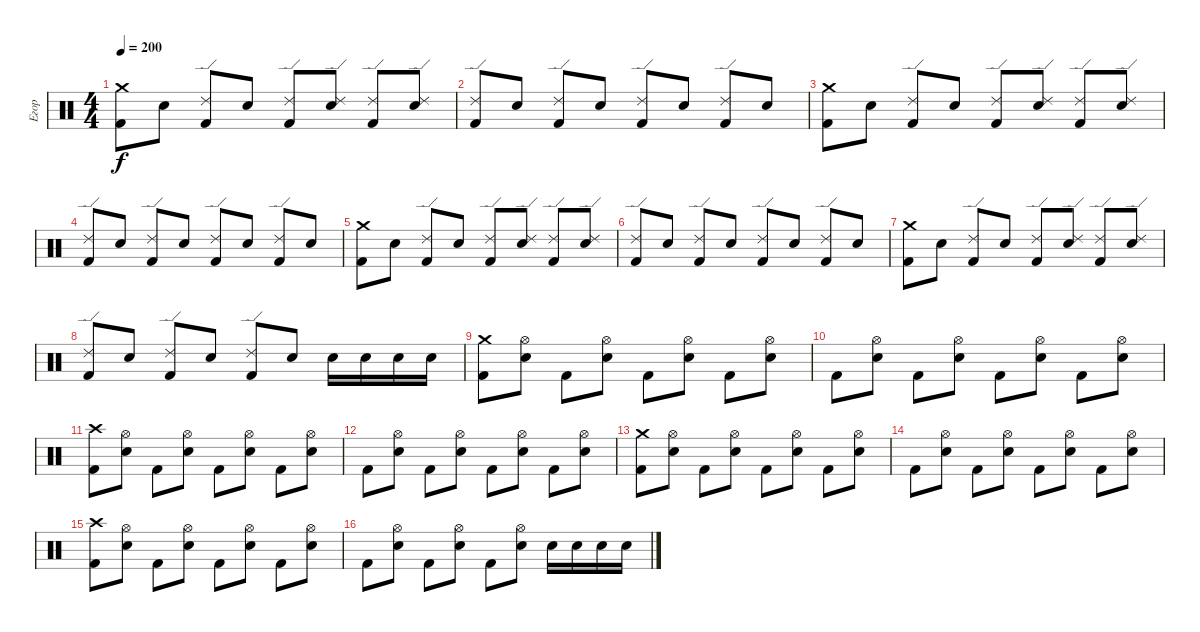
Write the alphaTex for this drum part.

\track ("Егор" "Егор") {instrument percussion}
\staff {score}
\articulation defaults
\ts (4 4)
\tempo 200
\clef neutral
\ks c
("Crash medium (hit)" "Kick (hit) 2").8{dy f} "Snare (hit) 2".8 ("Ride (edge) 2" "Kick (hit) 2").8 "Snare (hit) 2".8 ("Ride (edge) 2" "Kick (hit) 2").8 ("Ride (edge) 2" "Snare (hit) 2").8 ("Ride (edge) 2" "Kick (hit) 2").8 ("Ride (edge) 2" "Snare (hit) 2").8 |
("Ride (edge) 2" "Kick (hit) 2").8 "Snare (hit) 2".8 ("Ride (edge) 2" "Kick (hit) 2").8 "Snare (hit) 2".8 ("Ride (edge) 2" "Kick (hit) 2").8 "Snare (hit) 2".8 ("Ride (edge) 2" "Kick (hit) 2").8 "Snare (hit) 2".8 |
("Crash medium (hit)" "Kick (hit) 2").8 "Snare (hit) 2".8 ("Ride (edge) 2" "Kick (hit) 2").8 "Snare (hit) 2".8 ("Ride (edge) 2" "Kick (hit) 2").8 ("Ride (edge) 2" "Snare (hit) 2").8 ("Ride (edge) 2" "Kick (hit) 2").8 ("Ride (edge) 2" "Snare (hit) 2").8 |
("Ride (edge) 2" "Kick (hit) 2").8 "Snare (hit) 2".8 ("Ride (edge) 2" "Kick (hit) 2").8 "Snare (hit) 2".8 ("Ride (edge) 2" "Kick (hit) 2").8 "Snare (hit) 2".8 ("Ride (edge) 2" "Kick (hit) 2").8 "Snare (hit) 2".8 |
("Crash medium (hit)" "Kick (hit) 2").8 "Snare (hit) 2".8 ("Ride (edge) 2" "Kick (hit) 2").8 "Snare (hit) 2".8 ("Ride (edge) 2" "Kick (hit) 2").8 ("Ride (edge) 2" "Snare (hit) 2").8 ("Ride (edge) 2" "Kick (hit) 2").8 ("Ride (edge) 2" "Snare (hit) 2").8 |
("Ride (edge) 2" "Kick (hit) 2").8 "Snare (hit) 2".8 ("Ride (edge) 2" "Kick (hit) 2").8 "Snare (hit) 2".8 ("Ride (edge) 2" "Kick (hit) 2").8 "Snare (hit) 2".8 ("Ride (edge) 2" "Kick (hit) 2").8 "Snare (hit) 2".8 |
("Crash medium (hit)" "Kick (hit) 2").8 "Snare (hit) 2".8 ("Ride (edge) 2" "Kick (hit) 2").8 "Snare (hit) 2".8 ("Ride (edge) 2" "Kick (hit) 2").8 ("Ride (edge) 2" "Snare (hit) 2").8 ("Ride (edge) 2" "Kick (hit) 2").8 ("Ride (edge) 2" "Snare (hit) 2").8 |
("Ride (edge) 2" "Kick (hit) 2").8 "Snare (hit) 2".8 ("Ride (edge) 2" "Kick (hit) 2").8 "Snare (hit) 2".8 ("Ride (edge) 2" "Kick (hit) 2").8 "Snare (hit) 2".8 "Snare (hit) 2".16 "Snare (hit) 2".16 "Snare (hit) 2".16 "Snare (hit) 2".16 |
("Crash medium (hit)" "Kick (hit) 2").8 ("Hi-Hat (open)" "Snare (hit) 2").8 "Kick (hit) 2".8 ("Hi-Hat (open)" "Snare (hit) 2").8 "Kick (hit) 2".8 ("Hi-Hat (open)" "Snare (hit) 2").8 "Kick (hit) 2".8 ("Hi-Hat (open)" "Snare (hit) 2").8 |
"Kick (hit) 2".8 ("Hi-Hat (open)" "Snare (hit) 2").8 "Kick (hit) 2".8 ("Hi-Hat (open)" "Snare (hit) 2").8 "Kick (hit) 2".8 ("Hi-Hat (open)" "Snare (hit) 2").8 "Kick (hit) 2".8 ("Hi-Hat (open)" "Snare (hit) 2").8 |
("Crash high (hit)" "Kick (hit) 2").8 ("Hi-Hat (open)" "Snare (hit) 2").8 "Kick (hit) 2".8 ("Hi-Hat (open)" "Snare (hit) 2").8 "Kick (hit) 2".8 ("Hi-Hat (open)" "Snare (hit) 2").8 "Kick (hit) 2".8 ("Hi-Hat (open)" "Snare (hit) 2").8 |
"Kick (hit) 2".8 ("Hi-Hat (open)" "Snare (hit) 2").8 "Kick (hit) 2".8 ("Hi-Hat (open)" "Snare (hit) 2").8 "Kick (hit) 2".8 ("Hi-Hat (open)" "Snare (hit) 2").8 "Kick (hit) 2".8 ("Hi-Hat (open)" "Snare (hit) 2").8 |
("Crash medium (hit)" "Kick (hit) 2").8 ("Hi-Hat (open)" "Snare (hit) 2").8 "Kick (hit) 2".8 ("Hi-Hat (open)" "Snare (hit) 2").8 "Kick (hit) 2".8 ("Hi-Hat (open)" "Snare (hit) 2").8 "Kick (hit) 2".8 ("Hi-Hat (open)" "Snare (hit) 2").8 |
"Kick (hit) 2".8 ("Hi-Hat (open)" "Snare (hit) 2").8 "Kick (hit) 2".8 ("Hi-Hat (open)" "Snare (hit) 2").8 "Kick (hit) 2".8 ("Hi-Hat (open)" "Snare (hit) 2").8 "Kick (hit) 2".8 ("Hi-Hat (open)" "Snare (hit) 2").8 |
("Crash high (hit)" "Kick (hit) 2").8 ("Hi-Hat (open)" "Snare (hit) 2").8 "Kick (hit) 2".8 ("Hi-Hat (open)" "Snare (hit) 2").8 "Kick (hit) 2".8 ("Hi-Hat (open)" "Snare (hit) 2").8 "Kick (hit) 2".8 ("Hi-Hat (open)" "Snare (hit) 2").8 |
"Kick (hit) 2".8 ("Hi-Hat (open)" "Snare (hit) 2").8 "Kick (hit) 2".8 ("Hi-Hat (open)" "Snare (hit) 2").8 "Kick (hit) 2".8 ("Hi-Hat (open)" "Snare (hit) 2").8 "Snare (hit) 2".16 "Snare (hit) 2".16 "Snare (hit) 2".16 "Snare (hit) 2".16
